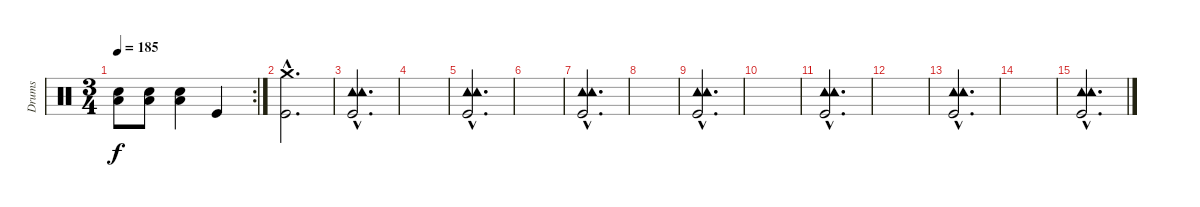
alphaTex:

\track ("Drums" "Drums") {instrument percussion}
\staff {score}
\articulation defaults
\rc 2
\ts (3 4)
\tempo 185
\clef neutral
\ks c
("Low Floor Tom (hit)" "Snare (hit) 2").8{dy f} ("Low Floor Tom (hit)" "Snare (hit) 2").8 ("Low Floor Tom (hit)" "Snare (hit) 2").4 "Kick (hit)".4 |
("Crash medium (hit)"{hac} "Kick (hit)"{hac}).2{d} |
("Tambourine (hit)"{hac} "Tambourine (hit)"{hac} "Kick (hit)"{hac}).2{d} |
|
("Tambourine (hit)"{hac} "Tambourine (hit)"{hac} "Kick (hit)"{hac}).2{d} |
|
("Tambourine (hit)"{hac} "Tambourine (hit)"{hac} "Kick (hit)"{hac}).2{d} |
|
("Tambourine (hit)"{hac} "Tambourine (hit)"{hac} "Kick (hit)"{hac}).2{d} |
|
("Tambourine (hit)"{hac} "Tambourine (hit)"{hac} "Kick (hit)"{hac}).2{d} |
|
("Tambourine (hit)"{hac} "Tambourine (hit)"{hac} "Kick (hit)"{hac}).2{d} |
|
("Tambourine (hit)"{hac} "Tambourine (hit)"{hac} "Kick (hit)"{hac}).2{d}
